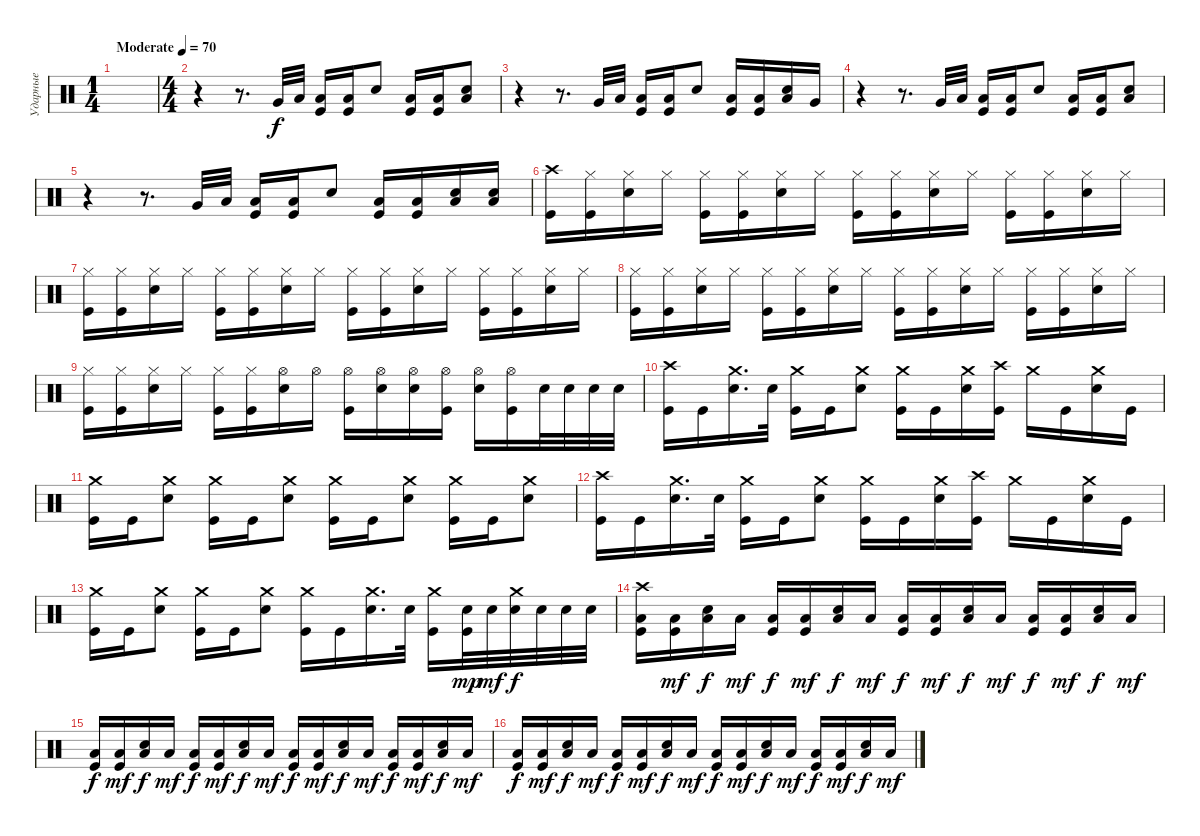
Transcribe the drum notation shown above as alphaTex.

\track ("Ударные" "Ударные") {instrument percussion}
\staff {score}
\articulation defaults
\ts (1 4)
\tempo (70 "Moderate")
\clef neutral
\ks c
|
\ts (4 4)
r.4 r.8{d} "Very Low Tom (hit)".32 "Low Floor Tom (hit)".32 ("Low Floor Tom (hit)" "Kick (hit)").16 ("Low Floor Tom (hit)" "Kick (hit)").16 "Snare (hit) 2".8 ("Low Floor Tom (hit)" "Kick (hit)").16 ("Low Floor Tom (hit)" "Kick (hit)").16 ("Snare (hit) 2" "Low Floor Tom (hit)").8 |
r.4 r.8{d} "Very Low Tom (hit)".32 "Low Floor Tom (hit)".32 ("Low Floor Tom (hit)" "Kick (hit)").16 ("Low Floor Tom (hit)" "Kick (hit)").16 "Snare (hit) 2".8 ("Low Floor Tom (hit)" "Kick (hit)").16 ("Low Floor Tom (hit)" "Kick (hit)").16 ("Snare (hit) 2" "Low Floor Tom (hit)").16 "Very Low Tom (hit)".16 |
r.4 r.8{d} "Very Low Tom (hit)".32 "Low Floor Tom (hit)".32 ("Low Floor Tom (hit)" "Kick (hit)").16 ("Low Floor Tom (hit)" "Kick (hit)").16 "Snare (hit) 2".8 ("Low Floor Tom (hit)" "Kick (hit)").16 ("Low Floor Tom (hit)" "Kick (hit)").16 ("Snare (hit) 2" "Low Floor Tom (hit)").8 |
r.4 r.8{d} "Very Low Tom (hit)".32 "Low Floor Tom (hit)".32 ("Low Floor Tom (hit)" "Kick (hit)").16 ("Low Floor Tom (hit)" "Kick (hit)").16 "Snare (hit) 2".8 ("Low Floor Tom (hit)" "Kick (hit)").16 ("Low Floor Tom (hit)" "Kick (hit)").16 ("Snare (hit) 2" "Low Floor Tom (hit)").16 ("Snare (hit) 2" "Low Floor Tom (hit)").16 |
("Kick (hit)" "Crash high (hit)").16 ("Hi-Hat (closed)" "Kick (hit)").16 ("Hi-Hat (closed)" "Snare (hit) 2").16 "Hi-Hat (closed)".16 ("Hi-Hat (closed)" "Kick (hit)").16 ("Hi-Hat (closed)" "Kick (hit)").16 ("Hi-Hat (closed)" "Snare (hit) 2").16 "Hi-Hat (closed)".16 ("Hi-Hat (closed)" "Kick (hit)").16 ("Hi-Hat (closed)" "Kick (hit)").16 ("Hi-Hat (closed)" "Snare (hit) 2").16 "Hi-Hat (closed)".16 ("Hi-Hat (closed)" "Kick (hit)").16 ("Hi-Hat (closed)" "Kick (hit)").16 ("Hi-Hat (closed)" "Snare (hit) 2").16 "Hi-Hat (closed)".16 |
("Hi-Hat (closed)" "Kick (hit)").16 ("Hi-Hat (closed)" "Kick (hit)").16 ("Hi-Hat (closed)" "Snare (hit) 2").16 "Hi-Hat (closed)".16 ("Hi-Hat (closed)" "Kick (hit)").16 ("Hi-Hat (closed)" "Kick (hit)").16 ("Hi-Hat (closed)" "Snare (hit) 2").16 "Hi-Hat (closed)".16 ("Hi-Hat (closed)" "Kick (hit)").16 ("Hi-Hat (closed)" "Kick (hit)").16 ("Hi-Hat (closed)" "Snare (hit) 2").16 "Hi-Hat (closed)".16 ("Hi-Hat (closed)" "Kick (hit)").16 ("Hi-Hat (closed)" "Kick (hit)").16 ("Hi-Hat (closed)" "Snare (hit) 2").16 "Hi-Hat (closed)".16 |
("Hi-Hat (closed)" "Kick (hit)").16 ("Hi-Hat (closed)" "Kick (hit)").16 ("Hi-Hat (closed)" "Snare (hit) 2").16 "Hi-Hat (closed)".16 ("Hi-Hat (closed)" "Kick (hit)").16 ("Hi-Hat (closed)" "Kick (hit)").16 ("Hi-Hat (closed)" "Snare (hit) 2").16 "Hi-Hat (closed)".16 ("Hi-Hat (closed)" "Kick (hit)").16 ("Hi-Hat (closed)" "Kick (hit)").16 ("Hi-Hat (closed)" "Snare (hit) 2").16 "Hi-Hat (closed)".16 ("Hi-Hat (closed)" "Kick (hit)").16 ("Hi-Hat (closed)" "Kick (hit)").16 ("Hi-Hat (closed)" "Snare (hit) 2").16 "Hi-Hat (closed)".16 |
("Hi-Hat (closed)" "Kick (hit)").16 ("Hi-Hat (closed)" "Kick (hit)").16 ("Hi-Hat (closed)" "Snare (hit) 2").16 "Hi-Hat (closed)".16 ("Hi-Hat (closed)" "Kick (hit)").16 ("Hi-Hat (closed)" "Kick (hit)").16 ("Hi-Hat (open)" "Snare (hit) 2").16 "Hi-Hat (open)".16 ("Hi-Hat (open)" "Kick (hit)").16 ("Hi-Hat (open)" "Snare (hit) 2").16 ("Hi-Hat (open)" "Snare (hit) 2").16 ("Hi-Hat (open)" "Kick (hit)").16 ("Hi-Hat (open)" "Snare (hit) 2").16 ("Hi-Hat (open)" "Kick (hit)").16 "Snare (hit) 2".32 "Snare (hit) 2".32 "Snare (hit) 2".32 "Snare (hit) 2".32 |
("Crash high (hit)" "Kick (hit)").16 "Kick (hit)".16 ("Crash medium (hit)" "Snare (hit) 2").16{d} "Snare (hit) 2".32 ("Crash medium (hit)" "Kick (hit)").16 "Kick (hit)".16 ("Crash medium (hit)" "Snare (hit) 2").8 ("Crash medium (hit)" "Kick (hit)").16 "Kick (hit)".16 ("Crash medium (hit)" "Snare (hit) 2").16 ("Crash high (hit)" "Kick (hit)").16 "Crash medium (hit)".16 "Kick (hit)".16 ("Crash medium (hit)" "Snare (hit) 2").16 "Kick (hit)".16 |
("Crash medium (hit)" "Kick (hit)").16 "Kick (hit)".16 ("Crash medium (hit)" "Snare (hit) 2").8 ("Crash medium (hit)" "Kick (hit)").16 "Kick (hit)".16 ("Crash medium (hit)" "Snare (hit) 2").8 ("Crash medium (hit)" "Kick (hit)").16 "Kick (hit)".16 ("Crash medium (hit)" "Snare (hit) 2").8 ("Crash medium (hit)" "Kick (hit)").16 "Kick (hit)".16 ("Crash medium (hit)" "Snare (hit) 2").8 |
("Crash high (hit)" "Kick (hit)").16 "Kick (hit)".16 ("Crash medium (hit)" "Snare (hit) 2").16{d} "Snare (hit) 2".32 ("Crash medium (hit)" "Kick (hit)").16 "Kick (hit)".16 ("Crash medium (hit)" "Snare (hit) 2").8 ("Crash medium (hit)" "Kick (hit)").16 "Kick (hit)".16 ("Crash medium (hit)" "Snare (hit) 2").16 ("Crash high (hit)" "Kick (hit)").16 "Crash medium (hit)".16 "Kick (hit)".16 ("Crash medium (hit)" "Snare (hit) 2").16 "Kick (hit)".16 |
("Crash medium (hit)" "Kick (hit)").16 "Kick (hit)".16 ("Crash medium (hit)" "Snare (hit) 2").8 ("Crash medium (hit)" "Kick (hit)").16 "Kick (hit)".16 ("Crash medium (hit)" "Snare (hit) 2").8 ("Crash medium (hit)" "Kick (hit)").16 "Kick (hit)".16 ("Crash medium (hit)" "Snare (hit) 2").16{d} "Snare (hit) 2".32 ("Crash medium (hit)" "Kick (hit)").16 ("Kick (hit)" "Snare (hit) 2").32{dy mp} "Snare (hit) 2".32{dy mf} ("Crash medium (hit)" "Snare (hit) 2").32{dy f} "Snare (hit) 2".32 "Snare (hit) 2".32 "Snare (hit) 2".32 |
("Crash high (hit)" "Low Floor Tom (hit)" "Kick (hit)").16 ("Low Floor Tom (hit)" "Kick (hit)").16{dy mf} ("Low Floor Tom (hit)" "Snare (hit) 2").16{dy f} "Low Floor Tom (hit)".16{dy mf} ("Low Floor Tom (hit)" "Kick (hit)").16{dy f} ("Low Floor Tom (hit)" "Kick (hit)").16{dy mf} ("Low Floor Tom (hit)" "Snare (hit) 2").16{dy f} "Low Floor Tom (hit)".16{dy mf} ("Low Floor Tom (hit)" "Kick (hit)").16{dy f} ("Low Floor Tom (hit)" "Kick (hit)").16{dy mf} ("Low Floor Tom (hit)" "Snare (hit) 2").16{dy f} "Low Floor Tom (hit)".16{dy mf} ("Low Floor Tom (hit)" "Kick (hit)").16{dy f} ("Low Floor Tom (hit)" "Kick (hit)").16{dy mf} ("Low Floor Tom (hit)" "Snare (hit) 2").16{dy f} "Low Floor Tom (hit)".16{dy mf} |
("Low Floor Tom (hit)" "Kick (hit)").16{dy f} ("Low Floor Tom (hit)" "Kick (hit)").16{dy mf} ("Low Floor Tom (hit)" "Snare (hit) 2").16{dy f} "Low Floor Tom (hit)".16{dy mf} ("Low Floor Tom (hit)" "Kick (hit)").16{dy f} ("Low Floor Tom (hit)" "Kick (hit)").16{dy mf} ("Low Floor Tom (hit)" "Snare (hit) 2").16{dy f} "Low Floor Tom (hit)".16{dy mf} ("Low Floor Tom (hit)" "Kick (hit)").16{dy f} ("Low Floor Tom (hit)" "Kick (hit)").16{dy mf} ("Low Floor Tom (hit)" "Snare (hit) 2").16{dy f} "Low Floor Tom (hit)".16{dy mf} ("Low Floor Tom (hit)" "Kick (hit)").16{dy f} ("Low Floor Tom (hit)" "Kick (hit)").16{dy mf} ("Low Floor Tom (hit)" "Snare (hit) 2").16{dy f} "Low Floor Tom (hit)".16{dy mf} |
("Low Floor Tom (hit)" "Kick (hit)").16{dy f} ("Low Floor Tom (hit)" "Kick (hit)").16{dy mf} ("Low Floor Tom (hit)" "Snare (hit) 2").16{dy f} "Low Floor Tom (hit)".16{dy mf} ("Low Floor Tom (hit)" "Kick (hit)").16{dy f} ("Low Floor Tom (hit)" "Kick (hit)").16{dy mf} ("Low Floor Tom (hit)" "Snare (hit) 2").16{dy f} "Low Floor Tom (hit)".16{dy mf} ("Low Floor Tom (hit)" "Kick (hit)").16{dy f} ("Low Floor Tom (hit)" "Kick (hit)").16{dy mf} ("Low Floor Tom (hit)" "Snare (hit) 2").16{dy f} "Low Floor Tom (hit)".16{dy mf} ("Low Floor Tom (hit)" "Kick (hit)").16{dy f} ("Low Floor Tom (hit)" "Kick (hit)").16{dy mf} ("Low Floor Tom (hit)" "Snare (hit) 2").16{dy f} "Low Floor Tom (hit)".16{dy mf}
